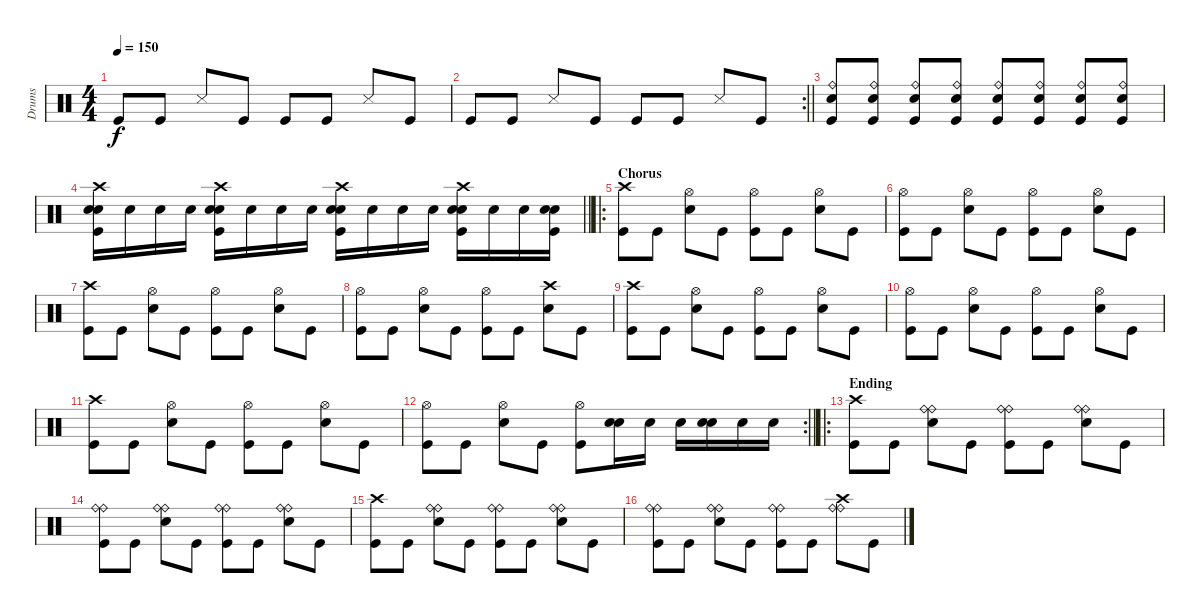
\track ("Drums" "Drums") {instrument percussion}
\staff {score}
\articulation defaults
\ts (4 4)
\tempo 150
\clef neutral
\ks c "Kick (hit)".8{dy f} "Kick (hit)".8 "Snare (side stick) 3".8 "Kick (hit)".8 "Kick (hit)".8 "Kick (hit)".8 "Snare (side stick) 3".8 "Kick (hit)".8
|
\rc 2
\barLineRight lightlight "Kick (hit)".8 "Kick (hit)".8 "Snare (side stick) 3".8 "Kick (hit)".8 "Kick (hit)".8 "Kick (hit)".8 "Snare (side stick) 3".8 "Kick (hit)".8
|
("Ride (bell)" "Electric Snare (hit)" "Kick (hit)").8 ("Ride (bell)" "Electric Snare (hit)" "Kick (hit)").8 ("Ride (bell)" "Electric Snare (hit)" "Kick (hit)").8 ("Ride (bell)" "Electric Snare (hit)" "Kick (hit)").8 ("Ride (bell)" "Electric Snare (hit)" "Kick (hit)").8 ("Ride (bell)" "Electric Snare (hit)" "Kick (hit)").8 ("Ride (bell)" "Electric Snare (hit)" "Kick (hit)").8 ("Ride (bell)" "Electric Snare (hit)" "Kick (hit)").8 |
\barLineRight lightlight
("Crash high (hit)" "Electric Snare (hit)" "Electric Snare (hit)" "Kick (hit)").16 "Electric Snare (hit)".16 "Electric Snare (hit)".16 "Electric Snare (hit)".16 ("Crash high (hit)" "Electric Snare (hit)" "Electric Snare (hit)" "Kick (hit)").16 "Electric Snare (hit)".16 "Electric Snare (hit)".16 "Electric Snare (hit)".16 ("Crash high (hit)" "Electric Snare (hit)" "Electric Snare (hit)" "Kick (hit)").16 "Electric Snare (hit)".16 "Electric Snare (hit)".16 "Electric Snare (hit)".16 ("Crash high (hit)" "Electric Snare (hit)" "Electric Snare (hit)" "Kick (hit)").16 "Electric Snare (hit)".16 "Electric Snare (hit)".16 ("Electric Snare (hit)" "Electric Snare (hit)" "Kick (hit)").16 |
\ro
\section ("" "Chorus")
("Crash high (hit)" "Kick (hit)").8 "Kick (hit)".8 ("Electric Snare (hit)" "Hi-Hat (open)").8 "Kick (hit)".8 ("Kick (hit)" "Hi-Hat (open)").8 "Kick (hit)".8 ("Electric Snare (hit)" "Hi-Hat (open)").8 "Kick (hit)".8 |
("Kick (hit)" "Hi-Hat (open)").8 "Kick (hit)".8 ("Electric Snare (hit)" "Hi-Hat (open)").8 "Kick (hit)".8 ("Kick (hit)" "Hi-Hat (open)").8 "Kick (hit)".8 ("Electric Snare (hit)" "Hi-Hat (open)").8 "Kick (hit)".8 |
("Crash high (hit)" "Kick (hit)").8 "Kick (hit)".8 ("Electric Snare (hit)" "Hi-Hat (open)").8 "Kick (hit)".8 ("Kick (hit)" "Hi-Hat (open)").8 "Kick (hit)".8 ("Electric Snare (hit)" "Hi-Hat (open)").8 "Kick (hit)".8 |
("Kick (hit)" "Hi-Hat (open)").8 "Kick (hit)".8 ("Electric Snare (hit)" "Hi-Hat (open)").8 "Kick (hit)".8 ("Kick (hit)" "Hi-Hat (open)").8 "Kick (hit)".8 ("Crash high (hit)" "Electric Snare (hit)").8 "Kick (hit)".8 |
("Crash high (hit)" "Kick (hit)").8 "Kick (hit)".8 ("Electric Snare (hit)" "Hi-Hat (open)").8 "Kick (hit)".8 ("Kick (hit)" "Hi-Hat (open)").8 "Kick (hit)".8 ("Electric Snare (hit)" "Hi-Hat (open)").8 "Kick (hit)".8 |
("Kick (hit)" "Hi-Hat (open)").8 "Kick (hit)".8 ("Electric Snare (hit)" "Hi-Hat (open)").8 "Kick (hit)".8 ("Kick (hit)" "Hi-Hat (open)").8 "Kick (hit)".8 ("Electric Snare (hit)" "Hi-Hat (open)").8 "Kick (hit)".8 |
("Crash high (hit)" "Kick (hit)").8 "Kick (hit)".8 ("Electric Snare (hit)" "Hi-Hat (open)").8 "Kick (hit)".8 ("Kick (hit)" "Hi-Hat (open)").8 "Kick (hit)".8 ("Electric Snare (hit)" "Hi-Hat (open)").8 "Kick (hit)".8 |
\rc 2
\barLineRight lightlight
("Kick (hit)" "Hi-Hat (open)").8 "Kick (hit)".8 ("Electric Snare (hit)" "Hi-Hat (open)").8 "Kick (hit)".8 ("Kick (hit)" "Hi-Hat (open)").8 ("Electric Snare (hit)" "Electric Snare (hit)").16 "Electric Snare (hit)".16 "Electric Snare (hit)".16 ("Electric Snare (hit)" "Electric Snare (hit)").16 "Electric Snare (hit)".16 "Electric Snare (hit)".16 |
\ro
\section ("" "Ending")
("Crash high (hit)" "Kick (hit)").8 "Kick (hit)".8 ("Electric Snare (hit)" "Ride (bell)" "Ride (bell)").8 "Kick (hit)".8 ("Kick (hit)" "Ride (bell)" "Ride (bell)").8 "Kick (hit)".8 ("Electric Snare (hit)" "Ride (bell)" "Ride (bell)").8 "Kick (hit)".8 |
("Kick (hit)" "Ride (bell)" "Ride (bell)").8 "Kick (hit)".8 ("Electric Snare (hit)" "Ride (bell)" "Ride (bell)").8 "Kick (hit)".8 ("Kick (hit)" "Ride (bell)" "Ride (bell)").8 "Kick (hit)".8 ("Electric Snare (hit)" "Ride (bell)" "Ride (bell)").8 "Kick (hit)".8 |
("Crash high (hit)" "Kick (hit)").8 "Kick (hit)".8 ("Electric Snare (hit)" "Ride (bell)" "Ride (bell)").8 "Kick (hit)".8 ("Kick (hit)" "Ride (bell)" "Ride (bell)").8 "Kick (hit)".8 ("Electric Snare (hit)" "Ride (bell)" "Ride (bell)").8 "Kick (hit)".8 |
("Kick (hit)" "Ride (bell)" "Ride (bell)").8 "Kick (hit)".8 ("Electric Snare (hit)" "Ride (bell)" "Ride (bell)").8 "Kick (hit)".8 ("Kick (hit)" "Ride (bell)" "Ride (bell)").8 "Kick (hit)".8 ("Crash high (hit)" "Ride (bell)" "Ride (bell)").8 "Kick (hit)".8
